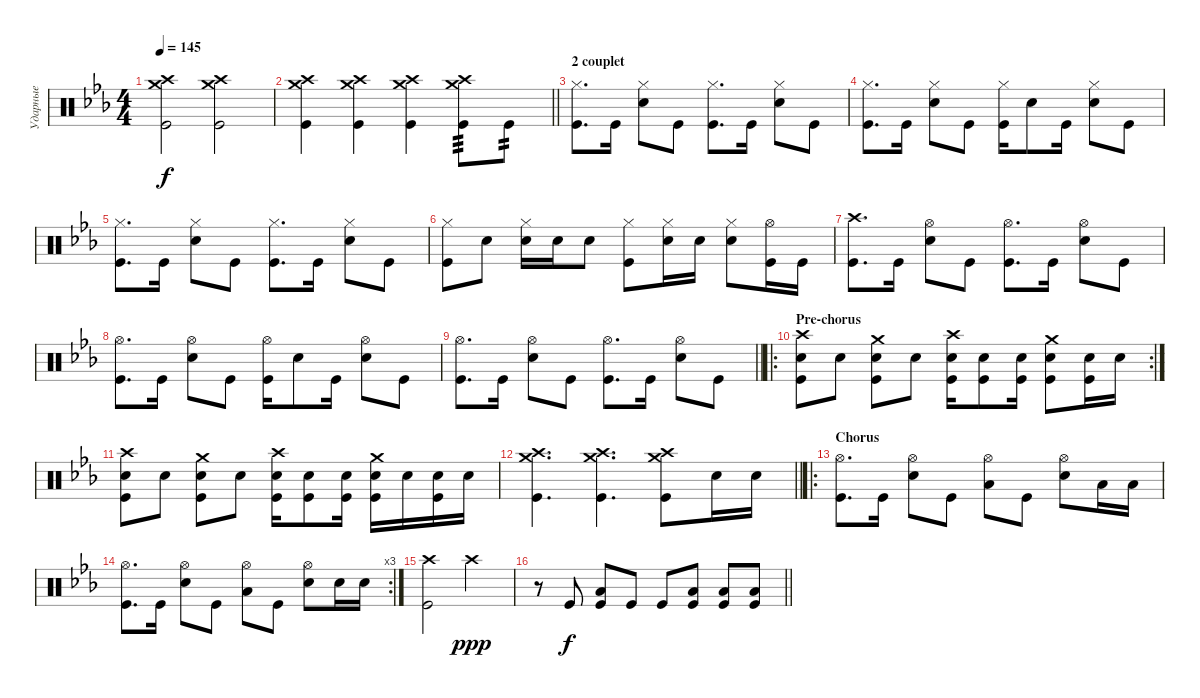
\track ("Ударные" "Ударные") {instrument percussion}
\staff {score}
\articulation defaults
\ts (4 4)
\tempo 145
\clef neutral
\ks cminor
("Crash medium (hit)" "Crash high (hit)" "Kick (hit)").2{dy f} ("Crash medium (hit)" "Crash high (hit)" "Kick (hit)").2 |
\barLineRight lightlight
("Crash medium (hit)" "Crash high (hit)" "Kick (hit)").4 ("Crash medium (hit)" "Crash high (hit)" "Kick (hit)").4 ("Crash medium (hit)" "Crash high (hit)" "Kick (hit)").4 ("Crash medium (hit)" "Crash high (hit)" "Kick (hit)").8{tp 3} "Kick (hit)".8{tp 2} |
\section ("" "2 couplet")
("Hi-Hat (closed)" "Kick (hit)").8{d} "Kick (hit)".16 ("Hi-Hat (closed)" "Snare (hit) 2").8 "Kick (hit)".8 ("Hi-Hat (closed)" "Kick (hit)").8{d} "Kick (hit)".16 ("Hi-Hat (closed)" "Snare (hit) 2").8 "Kick (hit)".8 |
("Hi-Hat (closed)" "Kick (hit)").8{d} "Kick (hit)".16 ("Hi-Hat (closed)" "Snare (hit) 2").8 "Kick (hit)".8 ("Hi-Hat (closed)" "Kick (hit)").16 "Snare (hit) 2".8 "Kick (hit)".16 ("Hi-Hat (closed)" "Snare (hit) 2").8 "Kick (hit)".8 |
("Hi-Hat (closed)" "Kick (hit)").8{d} "Kick (hit)".16 ("Hi-Hat (closed)" "Snare (hit) 2").8 "Kick (hit)".8 ("Hi-Hat (closed)" "Kick (hit)").8{d} "Kick (hit)".16 ("Hi-Hat (closed)" "Snare (hit) 2").8 "Kick (hit)".8 |
("Hi-Hat (closed)" "Kick (hit)").8 "Snare (hit) 2".8 ("Hi-Hat (closed)" "Snare (hit) 2").16 "Snare (hit) 2".16 "Snare (hit) 2".8 ("Hi-Hat (closed)" "Kick (hit)").8 ("Hi-Hat (closed)" "Snare (hit) 2").16 "Snare (hit) 2".16 ("Hi-Hat (closed)" "Snare (hit) 2").8 ("Hi-Hat (open)" "Kick (hit)").16 "Kick (hit)".16 |
("Crash high (hit)" "Kick (hit)").8{d} "Kick (hit)".16 ("Hi-Hat (open)" "Snare (hit) 2").8 "Kick (hit)".8 ("Hi-Hat (open)" "Kick (hit)").8{d} "Kick (hit)".16 ("Hi-Hat (open)" "Snare (hit) 2").8 "Kick (hit)".8 |
("Hi-Hat (open)" "Kick (hit)").8{d} "Kick (hit)".16 ("Hi-Hat (open)" "Snare (hit) 2").8 "Kick (hit)".8 ("Hi-Hat (open)" "Kick (hit)").16 "Snare (hit) 2".8 "Kick (hit)".16 ("Hi-Hat (open)" "Snare (hit) 2").8 "Kick (hit)".8 |
\barLineRight lightlight
("Hi-Hat (open)" "Kick (hit)").8{d} "Kick (hit)".16 ("Hi-Hat (open)" "Snare (hit) 2").8 "Kick (hit)".8 ("Hi-Hat (open)" "Kick (hit)").8{d} "Kick (hit)".16 ("Hi-Hat (open)" "Snare (hit) 2").8 "Kick (hit)".8 |
\ro
\rc 2
\section ("" "Pre-chorus")
("Crash high (hit)" "Snare (hit) 2" "Kick (hit)").8 "Snare (hit) 2".8 ("Crash medium (hit)" "Snare (hit) 2" "Kick (hit)").8 "Snare (hit) 2".8 ("Crash high (hit)" "Snare (hit) 2" "Kick (hit)").16 ("Snare (hit) 2" "Kick (hit)").8 ("Snare (hit) 2" "Kick (hit)").16 ("Crash medium (hit)" "Snare (hit) 2" "Kick (hit)").8 ("Snare (hit) 2" "Kick (hit)").16 "Snare (hit) 2".16 |
("Crash high (hit)" "Snare (hit) 2" "Kick (hit)").8 "Snare (hit) 2".8 ("Crash medium (hit)" "Snare (hit) 2" "Kick (hit)").8 "Snare (hit) 2".8 ("Crash high (hit)" "Snare (hit) 2" "Kick (hit)").16 ("Snare (hit) 2" "Kick (hit)").8 ("Snare (hit) 2" "Kick (hit)").16 ("Crash medium (hit)" "Snare (hit) 2" "Kick (hit)").16 "Snare (hit) 2".16 ("Snare (hit) 2" "Kick (hit)").16 "Snare (hit) 2".16 |
\barLineRight lightlight
("Crash medium (hit)" "Crash high (hit)" "Kick (hit)").4{d} ("Crash medium (hit)" "Crash high (hit)" "Kick (hit)").4{d} ("Crash medium (hit)" "Crash high (hit)" "Kick (hit)").8 "Snare (hit) 2".16 "Snare (hit) 2".16 |
\ro
\section ("" "Chorus")
("Hi-Hat (open)" "Kick (hit)").8{d} "Kick (hit)".16 ("Hi-Hat (open)" "Snare (hit) 2").8 "Kick (hit)".8 ("Hi-Hat (open)" "Low Floor Tom (hit)").8 "Kick (hit)".8 ("Hi-Hat (open)" "Snare (hit) 2").8 "Low Floor Tom (hit)".16 "Low Floor Tom (hit)".16 |
\rc 3
("Hi-Hat (open)" "Kick (hit)").8{d} "Kick (hit)".16 ("Hi-Hat (open)" "Snare (hit) 2").8 "Kick (hit)".8 ("Hi-Hat (open)" "Low Floor Tom (hit)").8 "Kick (hit)".8 ("Hi-Hat (open)" "Snare (hit) 2").8 "Snare (hit) 2".16 "Snare (hit) 2".16 |
("Crash high (hit)" "Kick (hit)").2 "Crash high (hit)".2{dy ppp} |
\barLineRight lightlight
r.8 "Kick (hit)".8{dy f volume 3} ("Low Floor Tom (hit)" "Kick (hit)").8{volume 9} "Kick (hit)".8 "Kick (hit)".8 ("Low Floor Tom (hit)" "Kick (hit)").8 ("Low Floor Tom (hit)" "Kick (hit)").8 ("Low Floor Tom (hit)" "Kick (hit)").8
